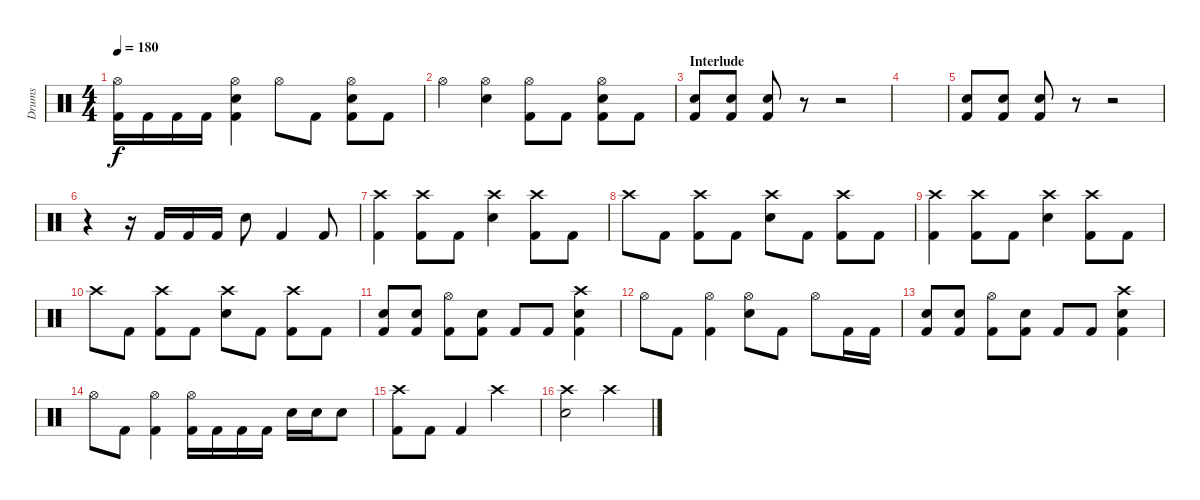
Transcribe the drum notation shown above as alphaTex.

\track ("Drums" "Drums") {instrument percussion}
\staff {score}
\articulation defaults
\ts (4 4)
\tempo 180
\clef neutral
\ks c
("Hi-Hat (open)" "Kick (hit) 2").16{dy f} "Kick (hit) 2".16 "Kick (hit) 2".16 "Kick (hit) 2".16 ("Hi-Hat (open)" "Electric Snare (hit)" "Kick (hit) 2").4 "Hi-Hat (open)".8 "Kick (hit) 2".8 ("Hi-Hat (open)" "Electric Snare (hit)" "Kick (hit) 2").8 "Kick (hit) 2".8 |
"Hi-Hat (open)".4 ("Hi-Hat (open)" "Electric Snare (hit)").4 ("Hi-Hat (open)" "Kick (hit) 2").8 "Kick (hit) 2".8 ("Hi-Hat (open)" "Electric Snare (hit)" "Kick (hit) 2").8 "Kick (hit) 2".8 |
\section ("" "Interlude")
("Electric Snare (hit)" "Kick (hit) 2").8 ("Electric Snare (hit)" "Kick (hit) 2").8 ("Electric Snare (hit)" "Kick (hit) 2").8 r.8 r.2 |
|
("Electric Snare (hit)" "Kick (hit) 2").8 ("Electric Snare (hit)" "Kick (hit) 2").8 ("Electric Snare (hit)" "Kick (hit) 2").8 r.8 r.2 |
r.4 r.16 "Kick (hit) 2".16 "Kick (hit) 2".16 "Kick (hit) 2".16 "Electric Snare (hit)".8 "Kick (hit) 2".4 "Kick (hit) 2".8 |
("Crash high (hit)" "Kick (hit) 2").4 ("Crash high (hit)" "Kick (hit) 2").8 "Kick (hit) 2".8 ("Crash high (hit)" "Electric Snare (hit)").4 ("Crash high (hit)" "Kick (hit) 2").8 "Kick (hit) 2".8 |
"Crash high (hit)".8 "Kick (hit) 2".8 ("Crash high (hit)" "Kick (hit) 2").8 "Kick (hit) 2".8 ("Crash high (hit)" "Electric Snare (hit)").8 "Kick (hit) 2".8 ("Crash high (hit)" "Kick (hit) 2").8 "Kick (hit) 2".8 |
("Crash high (hit)" "Kick (hit) 2").4 ("Crash high (hit)" "Kick (hit) 2").8 "Kick (hit) 2".8 ("Crash high (hit)" "Electric Snare (hit)").4 ("Crash high (hit)" "Kick (hit) 2").8 "Kick (hit) 2".8 |
"Crash high (hit)".8 "Kick (hit) 2".8 ("Crash high (hit)" "Kick (hit) 2").8 "Kick (hit) 2".8 ("Crash high (hit)" "Electric Snare (hit)").8 "Kick (hit) 2".8 ("Crash high (hit)" "Kick (hit) 2").8 "Kick (hit) 2".8 |
("Electric Snare (hit)" "Kick (hit) 2").8 ("Electric Snare (hit)" "Kick (hit) 2").8 ("Hi-Hat (open)" "Kick (hit) 2").8 ("Electric Snare (hit)" "Kick (hit) 2").8 "Kick (hit) 2".8 "Kick (hit) 2".8 ("Crash high (hit)" "Electric Snare (hit)" "Kick (hit) 2").4 |
"Hi-Hat (open)".8 "Kick (hit) 2".8 ("Hi-Hat (open)" "Kick (hit) 2").4 ("Hi-Hat (open)" "Electric Snare (hit)").8 "Kick (hit) 2".8 "Hi-Hat (open)".8 "Kick (hit) 2".16 "Kick (hit) 2".16 |
("Electric Snare (hit)" "Kick (hit) 2").8 ("Electric Snare (hit)" "Kick (hit) 2").8 ("Hi-Hat (open)" "Kick (hit) 2").8 ("Electric Snare (hit)" "Kick (hit) 2").8 "Kick (hit) 2".8 "Kick (hit) 2".8 ("Crash high (hit)" "Electric Snare (hit)" "Kick (hit) 2").4 |
"Hi-Hat (open)".8 "Kick (hit) 2".8 ("Hi-Hat (open)" "Kick (hit) 2").4 ("Hi-Hat (open)" "Kick (hit) 2").16 "Kick (hit) 2".16 "Kick (hit) 2".16 "Kick (hit) 2".16 "Electric Snare (hit)".16 "Electric Snare (hit)".16 "Electric Snare (hit)".8 |
("Crash high (hit)" "Kick (hit) 2").8 "Kick (hit) 2".8 "Kick (hit) 2".4 "Crash high (hit)".2 |
("Crash high (hit)" "Electric Snare (hit)").2 "Crash high (hit)".2
